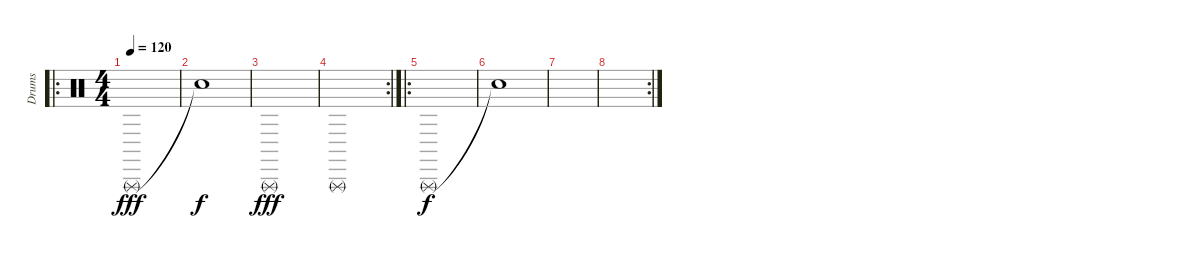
\track ("Drums" "Drums") {instrument percussion}
\staff {score}
\articulation defaults
\ro
\ts (4 4)
\tempo 120
\clef neutral
\ks c "Triangle (rnute)".1{dy fff}
|
"Snare (hit)"{t}.1{dy f} |
"Triangle (rnute)".1{dy fff} |
\rc 2 "Triangle (rnute)".1
|
\ro "Triangle (rnute)".1{dy f}
|
"Snare (hit)"{t}.1 |
|
\rc 2
